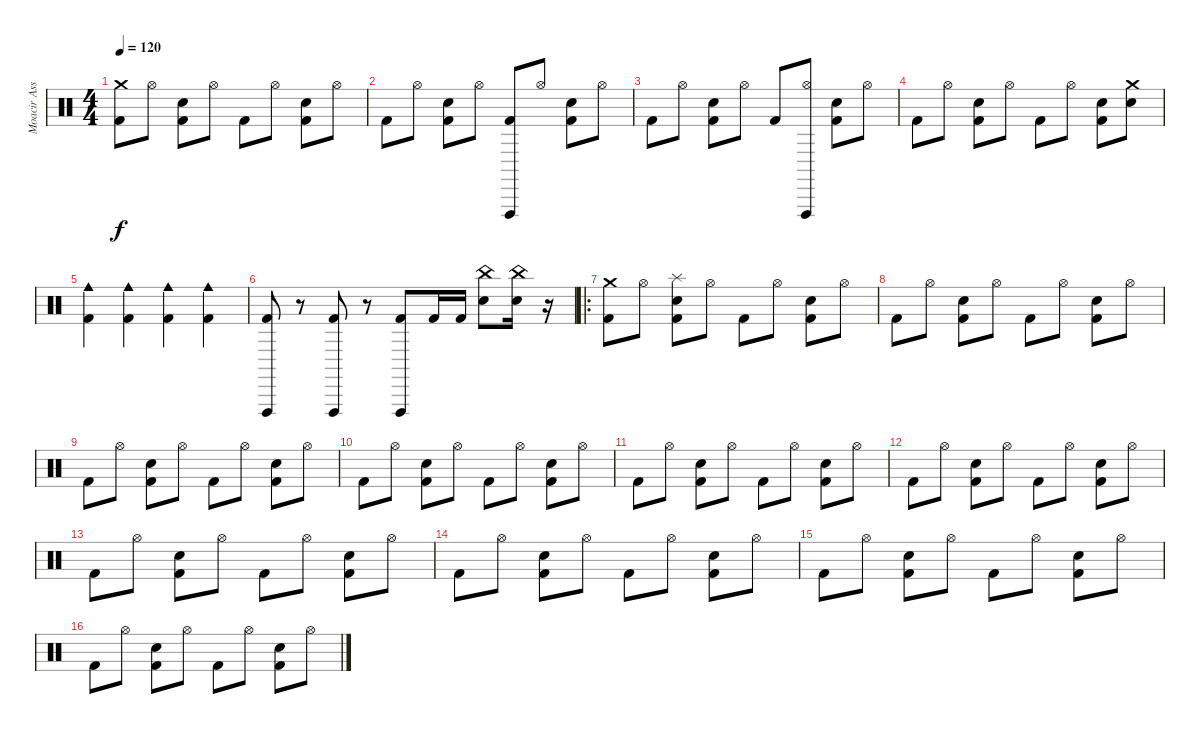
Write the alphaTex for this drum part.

\track ("Moacir Assunção (Bateria)" "Moacir Ass") {instrument percussion}
\staff {score}
\articulation defaults
\ts (4 4)
\tempo 120
\clef neutral
\ks c
("Kick (hit) 2" "Crash medium (hit)").8{dy f} "Hi-Hat (open)".8 ("Electric Snare (hit)" "Kick (hit) 2").8 "Hi-Hat (open)".8 "Kick (hit) 2".8 "Hi-Hat (open)".8 ("Electric Snare (hit)" "Kick (hit) 2").8 "Hi-Hat (open)".8 |
"Kick (hit) 2".8 "Hi-Hat (open)".8 ("Electric Snare (hit)" "Kick (hit) 2").8 "Hi-Hat (open)".8 ("Kick (hit) 2" "Vibraslap (hit)").8 "Hi-Hat (open)".8 ("Electric Snare (hit)" "Kick (hit) 2").8 "Hi-Hat (open)".8 |
"Kick (hit) 2".8 "Hi-Hat (open)".8 ("Electric Snare (hit)" "Kick (hit) 2").8 "Hi-Hat (open)".8 "Kick (hit) 2".8 ("Hi-Hat (open)" "Vibraslap (hit)").8 ("Electric Snare (hit)" "Kick (hit) 2").8 "Hi-Hat (open)".8 |
"Kick (hit) 2".8 "Hi-Hat (open)".8 ("Electric Snare (hit)" "Kick (hit) 2").8 "Hi-Hat (open)".8 "Kick (hit) 2".8 "Hi-Hat (open)".8 ("Electric Snare (hit)" "Kick (hit) 2").8 ("Electric Snare (hit)" "Crash medium (hit)").8 |
("Kick (hit) 2" "Cowbell medium (hit)").4 ("Kick (hit) 2" "Cowbell medium (hit)").4 ("Kick (hit) 2" "Cowbell medium (hit)").4 ("Kick (hit) 2" "Cowbell medium (hit)").4 |
("Kick (hit) 2" "Vibraslap (hit)").8 r.8 ("Kick (hit) 2" "Vibraslap (hit)").8 r.8 ("Kick (hit) 2" "Vibraslap (hit)").8 "Kick (hit) 2".16 "Kick (hit) 2".16 ("Electric Snare (hit)" "China (hit)").8 ("Electric Snare (hit)" "China (hit)").16 r.16 |
\ro
("Kick (hit) 2" "Crash medium (hit)").8 "Hi-Hat (open)".8 ("Electric Snare (hit)" "Kick (hit) 2" "Splash (hit)").8 "Hi-Hat (open)".8 "Kick (hit) 2".8 "Hi-Hat (open)".8 ("Electric Snare (hit)" "Kick (hit) 2").8 "Hi-Hat (open)".8 |
"Kick (hit) 2".8 "Hi-Hat (open)".8 ("Electric Snare (hit)" "Kick (hit) 2").8 "Hi-Hat (open)".8 "Kick (hit) 2".8 "Hi-Hat (open)".8 ("Electric Snare (hit)" "Kick (hit) 2").8 "Hi-Hat (open)".8 |
"Kick (hit) 2".8 "Hi-Hat (open)".8 ("Electric Snare (hit)" "Kick (hit) 2").8 "Hi-Hat (open)".8 "Kick (hit) 2".8 "Hi-Hat (open)".8 ("Electric Snare (hit)" "Kick (hit) 2").8 "Hi-Hat (open)".8 |
"Kick (hit) 2".8 "Hi-Hat (open)".8 ("Electric Snare (hit)" "Kick (hit) 2").8 "Hi-Hat (open)".8 "Kick (hit) 2".8 "Hi-Hat (open)".8 ("Electric Snare (hit)" "Kick (hit) 2").8 "Hi-Hat (open)".8 |
"Kick (hit) 2".8 "Hi-Hat (open)".8 ("Electric Snare (hit)" "Kick (hit) 2").8 "Hi-Hat (open)".8 "Kick (hit) 2".8 "Hi-Hat (open)".8 ("Electric Snare (hit)" "Kick (hit) 2").8 "Hi-Hat (open)".8 |
"Kick (hit) 2".8 "Hi-Hat (open)".8 ("Electric Snare (hit)" "Kick (hit) 2").8 "Hi-Hat (open)".8 "Kick (hit) 2".8 "Hi-Hat (open)".8 ("Electric Snare (hit)" "Kick (hit) 2").8 "Hi-Hat (open)".8 |
"Kick (hit) 2".8 "Hi-Hat (open)".8 ("Electric Snare (hit)" "Kick (hit) 2").8 "Hi-Hat (open)".8 "Kick (hit) 2".8 "Hi-Hat (open)".8 ("Electric Snare (hit)" "Kick (hit) 2").8 "Hi-Hat (open)".8 |
"Kick (hit) 2".8 "Hi-Hat (open)".8 ("Electric Snare (hit)" "Kick (hit) 2").8 "Hi-Hat (open)".8 "Kick (hit) 2".8 "Hi-Hat (open)".8 ("Electric Snare (hit)" "Kick (hit) 2").8 "Hi-Hat (open)".8 |
"Kick (hit) 2".8 "Hi-Hat (open)".8 ("Electric Snare (hit)" "Kick (hit) 2").8 "Hi-Hat (open)".8 "Kick (hit) 2".8 "Hi-Hat (open)".8 ("Electric Snare (hit)" "Kick (hit) 2").8 "Hi-Hat (open)".8 |
"Kick (hit) 2".8 "Hi-Hat (open)".8 ("Electric Snare (hit)" "Kick (hit) 2").8 "Hi-Hat (open)".8 "Kick (hit) 2".8 "Hi-Hat (open)".8 ("Electric Snare (hit)" "Kick (hit) 2").8 "Hi-Hat (open)".8
